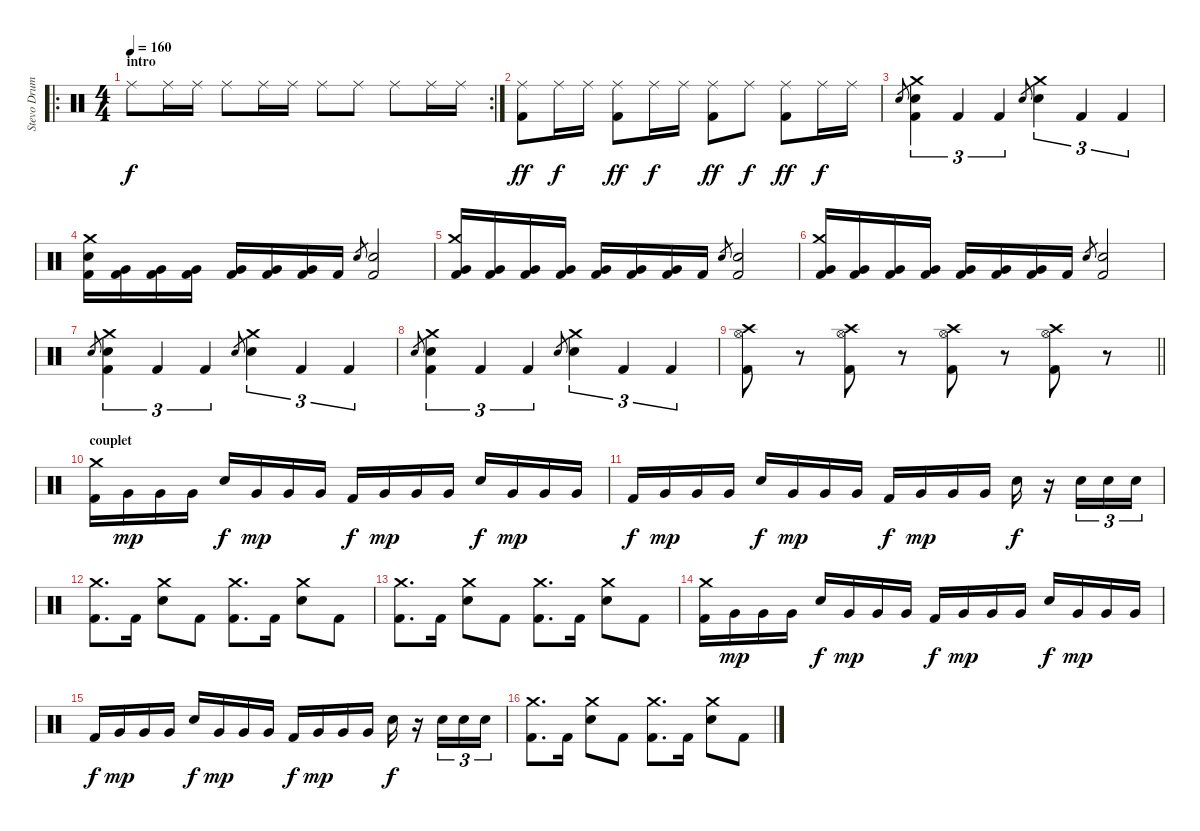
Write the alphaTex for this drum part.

\track ("Stevo Drums" "Stevo Drum") {instrument percussion}
\staff {score}
\articulation defaults
\ro
\rc 2
\ts (4 4)
\section ("" "intro")
\tempo 160
\clef neutral
\ks c "Ride (middle)".8{dy f} "Ride (middle)".16 "Ride (middle)".16 "Ride (middle)".8 "Ride (middle)".16 "Ride (middle)".16 "Ride (middle)".8 "Ride (middle)".8 "Ride (middle)".8 "Ride (middle)".16 "Ride (middle)".16
|
("Ride (middle)" "Kick (hit) 2").8{dy ff} "Ride (middle)".16{dy f} "Ride (middle)".16 ("Ride (middle)" "Kick (hit) 2").8{dy ff} "Ride (middle)".16{dy f} "Ride (middle)".16 ("Ride (middle)" "Kick (hit) 2").8{dy ff} "Ride (middle)".8{dy f} ("Ride (middle)" "Kick (hit) 2").8{dy ff} "Ride (middle)".16{dy f} "Ride (middle)".16 |
"Electric Snare (hit)".8{gr} ("Crash medium (hit)" "Electric Snare (hit)" "Kick (hit) 2").4{tu (3 2)} "Kick (hit) 2".4{tu (3 2)} "Kick (hit) 2".4{tu (3 2)} "Electric Snare (hit)".8{gr} ("Crash medium (hit)" "Electric Snare (hit)").4{tu (3 2)} "Kick (hit) 2".4{tu (3 2)} "Kick (hit) 2".4{tu (3 2)} |
("Crash medium (hit)" "Electric Snare (hit)" "Kick (hit) 2").16 ("Very Low Tom (hit)" "Kick (hit) 2").16 ("Very Low Tom (hit)" "Kick (hit) 2").16 ("Very Low Tom (hit)" "Kick (hit) 2").16 ("Very Low Tom (hit)" "Kick (hit) 2").16 ("Very Low Tom (hit)" "Kick (hit) 2").16 ("Very Low Tom (hit)" "Kick (hit) 2").16 "Kick (hit) 2".16 "Electric Snare (hit)".8{gr} ("Electric Snare (hit)" "Kick (hit) 2").2 |
("Crash medium (hit)" "Very Low Tom (hit)" "Kick (hit) 2").16 ("Very Low Tom (hit)" "Kick (hit) 2").16 ("Very Low Tom (hit)" "Kick (hit) 2").16 ("Very Low Tom (hit)" "Kick (hit) 2").16 ("Very Low Tom (hit)" "Kick (hit) 2").16 ("Very Low Tom (hit)" "Kick (hit) 2").16 ("Very Low Tom (hit)" "Kick (hit) 2").16 "Kick (hit) 2".16 "Electric Snare (hit)".8{gr} ("Electric Snare (hit)" "Kick (hit) 2").2 |
("Crash medium (hit)" "Very Low Tom (hit)" "Kick (hit) 2").16 ("Very Low Tom (hit)" "Kick (hit) 2").16 ("Very Low Tom (hit)" "Kick (hit) 2").16 ("Very Low Tom (hit)" "Kick (hit) 2").16 ("Very Low Tom (hit)" "Kick (hit) 2").16 ("Very Low Tom (hit)" "Kick (hit) 2").16 ("Very Low Tom (hit)" "Kick (hit) 2").16 "Kick (hit) 2".16 "Electric Snare (hit)".8{gr} ("Electric Snare (hit)" "Kick (hit) 2").2 |
"Electric Snare (hit)".8{gr} ("Crash medium (hit)" "Electric Snare (hit)" "Kick (hit) 2").4{tu (3 2)} "Kick (hit) 2".4{tu (3 2)} "Kick (hit) 2".4{tu (3 2)} "Electric Snare (hit)".8{gr} ("Crash medium (hit)" "Electric Snare (hit)").4{tu (3 2)} "Kick (hit) 2".4{tu (3 2)} "Kick (hit) 2".4{tu (3 2)} |
"Electric Snare (hit)".8{gr} ("Crash medium (hit)" "Electric Snare (hit)" "Kick (hit) 2").4{tu (3 2)} "Kick (hit) 2".4{tu (3 2)} "Kick (hit) 2".4{tu (3 2)} "Electric Snare (hit)".8{gr} ("Crash medium (hit)" "Electric Snare (hit)").4{tu (3 2)} "Kick (hit) 2".4{tu (3 2)} "Kick (hit) 2".4{tu (3 2)} |
\barLineRight lightlight
("Crash high (hit)" "Hi-Hat (open)" "Kick (hit) 2").8 r.8 ("Crash high (hit)" "Hi-Hat (open)" "Kick (hit) 2").8 r.8 ("Crash high (hit)" "Hi-Hat (open)" "Kick (hit) 2").8 r.8 ("Crash high (hit)" "Hi-Hat (open)" "Kick (hit) 2").8 r.8 |
\section ("" "couplet")
("Crash medium (hit)" "Kick (hit) 2").16 "Very Low Tom (hit)".16{dy mp} "Very Low Tom (hit)".16 "Very Low Tom (hit)".16 "Electric Snare (hit)".16{dy f} "Very Low Tom (hit)".16{dy mp} "Very Low Tom (hit)".16 "Very Low Tom (hit)".16 "Kick (hit) 2".16{dy f} "Very Low Tom (hit)".16{dy mp} "Very Low Tom (hit)".16 "Very Low Tom (hit)".16 "Electric Snare (hit)".16{dy f} "Very Low Tom (hit)".16{dy mp} "Very Low Tom (hit)".16 "Very Low Tom (hit)".16 |
"Kick (hit) 2".16{dy f} "Very Low Tom (hit)".16{dy mp} "Very Low Tom (hit)".16 "Very Low Tom (hit)".16 "Electric Snare (hit)".16{dy f} "Very Low Tom (hit)".16{dy mp} "Very Low Tom (hit)".16 "Very Low Tom (hit)".16 "Kick (hit) 2".16{dy f} "Very Low Tom (hit)".16{dy mp} "Very Low Tom (hit)".16 "Very Low Tom (hit)".16 "Electric Snare (hit)".16{dy f} r.16 "Electric Snare (hit)".16{tu (3 2)} "Electric Snare (hit)".16{tu (3 2)} "Electric Snare (hit)".16{tu (3 2)} |
("Crash medium (hit)" "Kick (hit) 2").8{d} "Kick (hit) 2".16 ("Crash medium (hit)" "Electric Snare (hit)").8 "Kick (hit) 2".8 ("Crash medium (hit)" "Kick (hit) 2").8{d} "Kick (hit) 2".16 ("Crash medium (hit)" "Electric Snare (hit)").8 "Kick (hit) 2".8 |
("Crash medium (hit)" "Kick (hit) 2").8{d} "Kick (hit) 2".16 ("Crash medium (hit)" "Electric Snare (hit)").8 "Kick (hit) 2".8 ("Crash medium (hit)" "Kick (hit) 2").8{d} "Kick (hit) 2".16 ("Crash medium (hit)" "Electric Snare (hit)").8 "Kick (hit) 2".8 |
("Crash medium (hit)" "Kick (hit) 2").16 "Very Low Tom (hit)".16{dy mp} "Very Low Tom (hit)".16 "Very Low Tom (hit)".16 "Electric Snare (hit)".16{dy f} "Very Low Tom (hit)".16{dy mp} "Very Low Tom (hit)".16 "Very Low Tom (hit)".16 "Kick (hit) 2".16{dy f} "Very Low Tom (hit)".16{dy mp} "Very Low Tom (hit)".16 "Very Low Tom (hit)".16 "Electric Snare (hit)".16{dy f} "Very Low Tom (hit)".16{dy mp} "Very Low Tom (hit)".16 "Very Low Tom (hit)".16 |
"Kick (hit) 2".16{dy f} "Very Low Tom (hit)".16{dy mp} "Very Low Tom (hit)".16 "Very Low Tom (hit)".16 "Electric Snare (hit)".16{dy f} "Very Low Tom (hit)".16{dy mp} "Very Low Tom (hit)".16 "Very Low Tom (hit)".16 "Kick (hit) 2".16{dy f} "Very Low Tom (hit)".16{dy mp} "Very Low Tom (hit)".16 "Very Low Tom (hit)".16 "Electric Snare (hit)".16{dy f} r.16 "Electric Snare (hit)".16{tu (3 2)} "Electric Snare (hit)".16{tu (3 2)} "Electric Snare (hit)".16{tu (3 2)} |
("Crash medium (hit)" "Kick (hit) 2").8{d} "Kick (hit) 2".16 ("Crash medium (hit)" "Electric Snare (hit)").8 "Kick (hit) 2".8 ("Crash medium (hit)" "Kick (hit) 2").8{d} "Kick (hit) 2".16 ("Crash medium (hit)" "Electric Snare (hit)").8 "Kick (hit) 2".8
